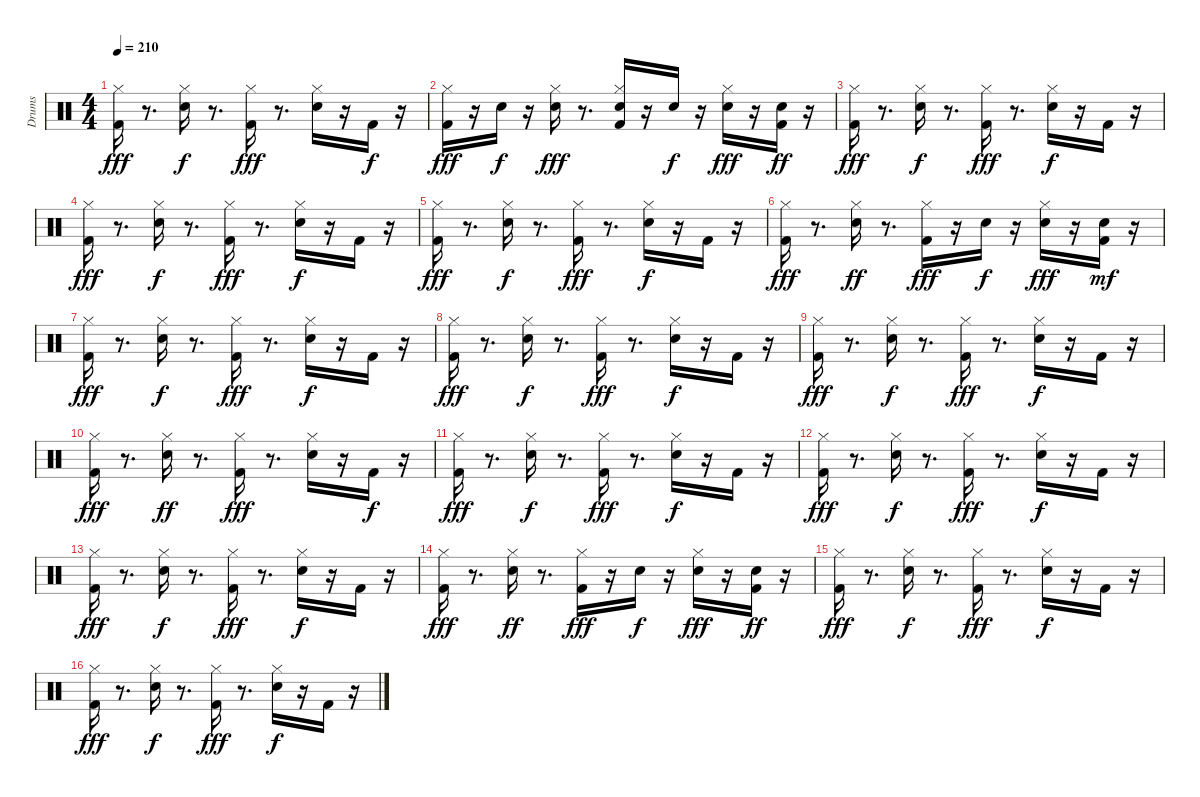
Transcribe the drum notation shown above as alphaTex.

\track ("Drums " "Drums ") {instrument percussion}
\staff {score}
\articulation defaults
\ts (4 4)
\tempo 210
\clef neutral
\ks c
("Kick (hit) 2" "Hi-Hat (closed)").16{dy fff} r.8{d} ("Snare (hit) 2" "Hi-Hat (closed)").16{dy f} r.8{d} ("Kick (hit) 2" "Hi-Hat (closed)").16{dy fff} r.8{d} ("Snare (hit) 2" "Hi-Hat (closed)").16 r.16 "Kick (hit) 2".16{dy f} r.16 |
("Kick (hit) 2" "Hi-Hat (closed)").16{dy fff} r.16 "Snare (hit) 2".16{dy f} r.16 ("Snare (hit) 2" "Hi-Hat (closed)").16{dy fff} r.8{d} ("Kick (hit) 2" "Snare (hit) 2" "Hi-Hat (closed)").16 r.16 "Snare (hit) 2".16{dy f} r.16 ("Snare (hit) 2" "Hi-Hat (closed)").16{dy fff} r.16 ("Kick (hit) 2" "Snare (hit) 2").16{dy ff} r.16 |
("Kick (hit) 2" "Hi-Hat (closed)").16{dy fff} r.8{d} ("Snare (hit) 2" "Hi-Hat (closed)").16{dy f} r.8{d} ("Kick (hit) 2" "Hi-Hat (closed)").16{dy fff} r.8{d} ("Snare (hit) 2" "Hi-Hat (closed)").16{dy f} r.16 "Kick (hit) 2".16 r.16 |
("Kick (hit) 2" "Hi-Hat (closed)").16{dy fff} r.8{d} ("Snare (hit) 2" "Hi-Hat (closed)").16{dy f} r.8{d} ("Kick (hit) 2" "Hi-Hat (closed)").16{dy fff} r.8{d} ("Snare (hit) 2" "Hi-Hat (closed)").16{dy f} r.16 "Kick (hit) 2".16 r.16 |
("Kick (hit) 2" "Hi-Hat (closed)").16{dy fff} r.8{d} ("Snare (hit) 2" "Hi-Hat (closed)").16{dy f} r.8{d} ("Kick (hit) 2" "Hi-Hat (closed)").16{dy fff} r.8{d} ("Snare (hit) 2" "Hi-Hat (closed)").16{dy f} r.16 "Kick (hit) 2".16 r.16 |
("Kick (hit) 2" "Hi-Hat (closed)").16{dy fff} r.8{d} ("Snare (hit) 2" "Hi-Hat (closed)").16{dy ff} r.8{d} ("Kick (hit) 2" "Hi-Hat (closed)").16{dy fff} r.16 "Snare (hit) 2".16{dy f} r.16 ("Snare (hit) 2" "Hi-Hat (closed)").16{dy fff} r.16 ("Kick (hit) 2" "Snare (hit) 2").16{dy mf} r.16 |
("Kick (hit) 2" "Hi-Hat (closed)").16{dy fff} r.8{d} ("Snare (hit) 2" "Hi-Hat (closed)").16{dy f} r.8{d} ("Kick (hit) 2" "Hi-Hat (closed)").16{dy fff} r.8{d} ("Snare (hit) 2" "Hi-Hat (closed)").16{dy f} r.16 "Kick (hit) 2".16 r.16 |
("Kick (hit) 2" "Hi-Hat (closed)").16{dy fff} r.8{d} ("Snare (hit) 2" "Hi-Hat (closed)").16{dy f} r.8{d} ("Kick (hit) 2" "Hi-Hat (closed)").16{dy fff} r.8{d} ("Snare (hit) 2" "Hi-Hat (closed)").16{dy f} r.16 "Kick (hit) 2".16 r.16 |
("Kick (hit) 2" "Hi-Hat (closed)").16{dy fff} r.8{d} ("Snare (hit) 2" "Hi-Hat (closed)").16{dy f} r.8{d} ("Kick (hit) 2" "Hi-Hat (closed)").16{dy fff} r.8{d} ("Snare (hit) 2" "Hi-Hat (closed)").16{dy f} r.16 "Kick (hit) 2".16 r.16 |
("Kick (hit) 2" "Hi-Hat (closed)").16{dy fff} r.8{d} ("Snare (hit) 2" "Hi-Hat (closed)").16{dy ff} r.8{d} ("Kick (hit) 2" "Hi-Hat (closed)").16{dy fff} r.8{d} ("Snare (hit) 2" "Hi-Hat (closed)").16 r.16 "Kick (hit) 2".16{dy f} r.16 |
("Kick (hit) 2" "Hi-Hat (closed)").16{dy fff} r.8{d} ("Snare (hit) 2" "Hi-Hat (closed)").16{dy f} r.8{d} ("Kick (hit) 2" "Hi-Hat (closed)").16{dy fff} r.8{d} ("Snare (hit) 2" "Hi-Hat (closed)").16{dy f} r.16 "Kick (hit) 2".16 r.16 |
("Kick (hit) 2" "Hi-Hat (closed)").16{dy fff} r.8{d} ("Snare (hit) 2" "Hi-Hat (closed)").16{dy f} r.8{d} ("Kick (hit) 2" "Hi-Hat (closed)").16{dy fff} r.8{d} ("Snare (hit) 2" "Hi-Hat (closed)").16{dy f} r.16 "Kick (hit) 2".16 r.16 |
("Kick (hit) 2" "Hi-Hat (closed)").16{dy fff} r.8{d} ("Snare (hit) 2" "Hi-Hat (closed)").16{dy f} r.8{d} ("Kick (hit) 2" "Hi-Hat (closed)").16{dy fff} r.8{d} ("Snare (hit) 2" "Hi-Hat (closed)").16{dy f} r.16 "Kick (hit) 2".16 r.16 |
("Kick (hit) 2" "Hi-Hat (closed)").16{dy fff} r.8{d} ("Snare (hit) 2" "Hi-Hat (closed)").16{dy ff} r.8{d} ("Kick (hit) 2" "Hi-Hat (closed)").16{dy fff} r.16 "Snare (hit) 2".16{dy f} r.16 ("Snare (hit) 2" "Hi-Hat (closed)").16{dy fff} r.16 ("Kick (hit) 2" "Snare (hit) 2").16{dy ff} r.16 |
("Kick (hit) 2" "Hi-Hat (closed)").16{dy fff} r.8{d} ("Snare (hit) 2" "Hi-Hat (closed)").16{dy f} r.8{d} ("Kick (hit) 2" "Hi-Hat (closed)").16{dy fff} r.8{d} ("Snare (hit) 2" "Hi-Hat (closed)").16{dy f} r.16 "Kick (hit) 2".16 r.16 |
("Kick (hit) 2" "Hi-Hat (closed)").16{dy fff} r.8{d} ("Snare (hit) 2" "Hi-Hat (closed)").16{dy f} r.8{d} ("Kick (hit) 2" "Hi-Hat (closed)").16{dy fff} r.8{d} ("Snare (hit) 2" "Hi-Hat (closed)").16{dy f} r.16 "Kick (hit) 2".16 r.16
